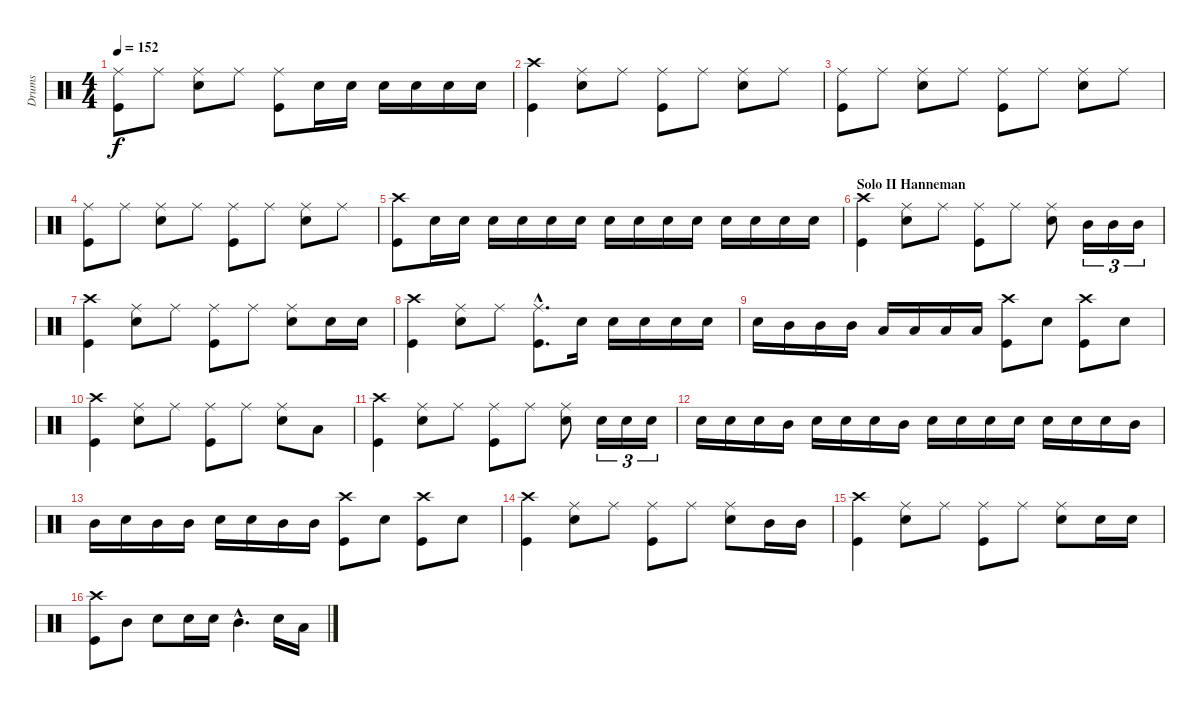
\track ("Drums" "Drums") {instrument percussion}
\staff {score}
\articulation defaults
\ts (4 4)
\tempo 152
\clef neutral
\ks c
("Ride (middle)" "Kick (hit)").8{dy f} "Ride (middle)".8 ("Ride (middle)" "Snare (hit) 2").8 "Ride (middle)".8 ("Ride (middle)" "Kick (hit)").8 "Snare (hit) 2".16 "Snare (hit) 2".16 "Snare (hit) 2".16 "Snare (hit) 2".16 "Snare (hit) 2".16 "Snare (hit) 2".16 |
("Crash high (hit)" "Kick (hit)").4 ("Ride (middle)" "Snare (hit) 2").8 "Ride (middle)".8 ("Ride (middle)" "Kick (hit)").8 "Ride (middle)".8 ("Ride (middle)" "Snare (hit) 2").8 "Ride (middle)".8 |
("Ride (middle)" "Kick (hit)").8 "Ride (middle)".8 ("Ride (middle)" "Snare (hit) 2").8 "Ride (middle)".8 ("Ride (middle)" "Kick (hit)").8 "Ride (middle)".8 ("Ride (middle)" "Snare (hit) 2").8 "Ride (middle)".8 |
("Ride (middle)" "Kick (hit)").8 "Ride (middle)".8 ("Ride (middle)" "Snare (hit) 2").8 "Ride (middle)".8 ("Ride (middle)" "Kick (hit)").8 "Ride (middle)".8 ("Ride (middle)" "Snare (hit) 2").8 "Ride (middle)".8 |
("Crash high (hit)" "Kick (hit)").8 "Snare (hit) 2".16 "Snare (hit) 2".16 "Snare (hit) 2".16 "Snare (hit) 2".16 "Snare (hit) 2".16 "Snare (hit) 2".16 "Snare (hit) 2".16 "Snare (hit) 2".16 "Snare (hit) 2".16 "Snare (hit) 2".16 "Snare (hit) 2".16 "Snare (hit) 2".16 "Snare (hit) 2".16 "Snare (hit) 2".16 |
\section ("" "Solo II Hanneman")
("Crash high (hit)" "Kick (hit)").4 ("Ride (middle)" "Snare (hit) 2").8 "Ride (middle)".8 ("Ride (middle)" "Kick (hit)").8 "Ride (middle)".8 ("Ride (middle)" "Snare (hit) 2").8 "Mid Tom (hit)".16{tu (3 2)} "Mid Tom (hit)".16{tu (3 2)} "Mid Tom (hit)".16{tu (3 2)} |
("Crash high (hit)" "Kick (hit)").4 ("Ride (middle)" "Snare (hit) 2").8 "Ride (middle)".8 ("Ride (middle)" "Kick (hit)").8 "Ride (middle)".8 ("Ride (middle)" "Snare (hit) 2").8 "Snare (hit) 2".16 "Snare (hit) 2".16 |
("Crash high (hit)" "Kick (hit)").4 ("Ride (middle)" "Snare (hit) 2").8 "Ride (middle)".8 ("Ride (middle)"{hac} "Kick (hit)"{hac}).8{d} "Snare (hit) 2".16 "Snare (hit) 2".16 "Snare (hit) 2".16 "Snare (hit) 2".16 "Snare (hit) 2".16 |
"Snare (hit) 2".16 "Mid Tom (hit)".16 "Mid Tom (hit)".16 "Mid Tom (hit)".16 "Low Tom (hit)".16 "Low Tom (hit)".16 "Low Tom (hit)".16 "Low Tom (hit)".16 ("Crash high (hit)" "Kick (hit)").8 "Snare (hit) 2".8 ("Crash high (hit)" "Kick (hit)").8 "Snare (hit) 2".8 |
("Crash high (hit)" "Kick (hit)").4 ("Ride (middle)" "Snare (hit) 2").8 "Ride (middle)".8 ("Ride (middle)" "Kick (hit)").8 "Ride (middle)".8 ("Ride (middle)" "Snare (hit) 2").8 "Low Tom (hit)".8 |
("Crash high (hit)" "Kick (hit)").4 ("Ride (middle)" "Snare (hit) 2").8 "Ride (middle)".8 ("Ride (middle)" "Kick (hit)").8 "Ride (middle)".8 ("Ride (middle)" "Snare (hit) 2").8 "Snare (hit) 2".16{tu (3 2)} "Snare (hit) 2".16{tu (3 2)} "Snare (hit) 2".16{tu (3 2)} |
"Snare (hit) 2".16 "Snare (hit) 2".16 "Snare (hit) 2".16 "Mid Tom (hit)".16 "Snare (hit) 2".16 "Snare (hit) 2".16 "Snare (hit) 2".16 "Mid Tom (hit)".16 "Snare (hit) 2".16 "Snare (hit) 2".16 "Snare (hit) 2".16 "Snare (hit) 2".16 "Snare (hit) 2".16 "Snare (hit) 2".16 "Snare (hit) 2".16 "Mid Tom (hit)".16 |
"Mid Tom (hit)".16 "Snare (hit) 2".16 "Mid Tom (hit)".16 "Mid Tom (hit)".16 "Snare (hit) 2".16 "Snare (hit) 2".16 "Mid Tom (hit)".16 "Mid Tom (hit)".16 ("Crash high (hit)" "Kick (hit)").8 "Snare (hit) 2".8 ("Crash high (hit)" "Kick (hit)").8 "Snare (hit) 2".8 |
("Crash high (hit)" "Kick (hit)").4 ("Ride (middle)" "Snare (hit) 2").8 "Ride (middle)".8 ("Ride (middle)" "Kick (hit)").8 "Ride (middle)".8 ("Ride (middle)" "Snare (hit) 2").8 "Mid Tom (hit)".16 "Mid Tom (hit)".16 |
("Crash high (hit)" "Kick (hit)").4 ("Ride (middle)" "Snare (hit) 2").8 "Ride (middle)".8 ("Ride (middle)" "Kick (hit)").8 "Ride (middle)".8 ("Ride (middle)" "Snare (hit) 2").8 "Snare (hit) 2".16 "Snare (hit) 2".16 |
("Crash high (hit)" "Kick (hit)").8 "Mid Tom (hit)".8 "Snare (hit) 2".8 "Snare (hit) 2".16 "Snare (hit) 2".16 "Mid Tom (hit)"{hac}.4{d} "Snare (hit) 2".16 "Low Tom (hit)".16
